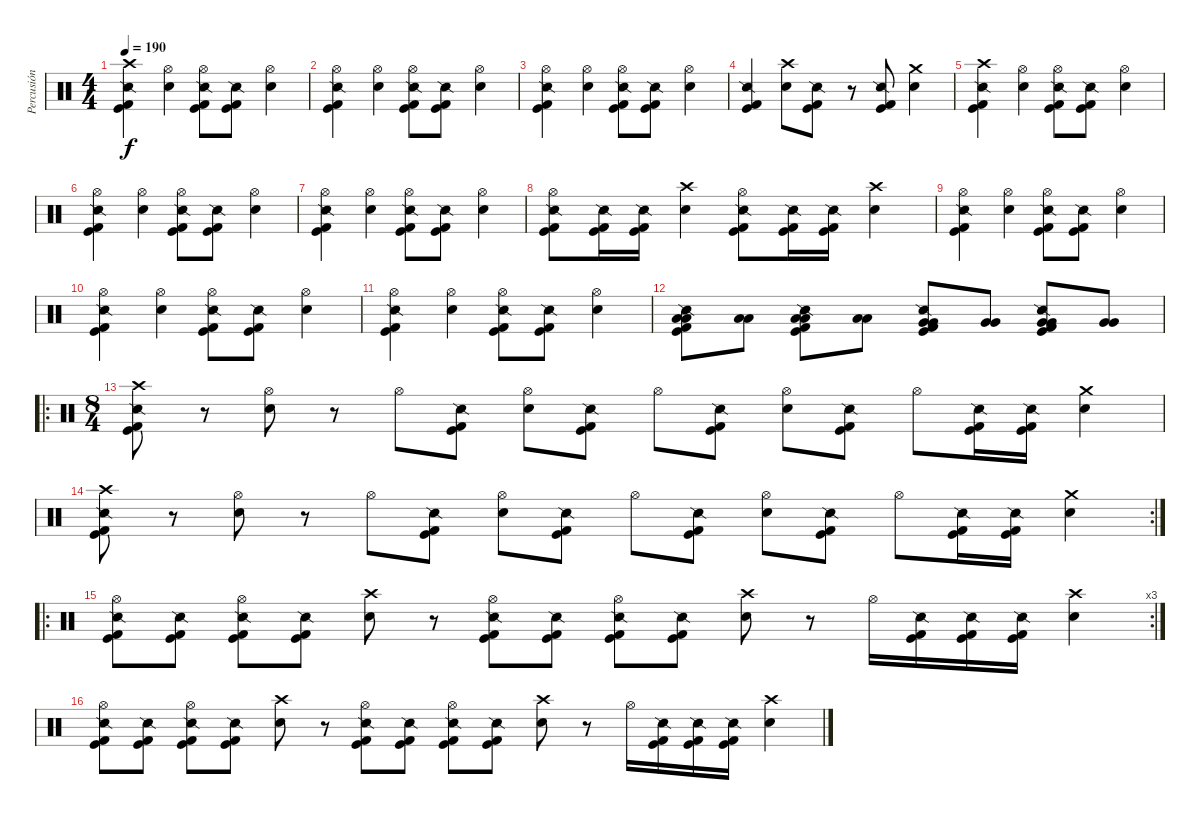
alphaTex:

\track ("Percusión" "Percusión") {instrument percussion}
\staff {score}
\articulation defaults
\ts (4 4)
\tempo 190
\clef neutral
\ks c
("Crash high (hit)" "Snare (side stick) 2" "Kick (hit)" "Kick (hit) 2").4{dy f} ("Hi-Hat (open)" "Snare (hit) 2").4 ("Hi-Hat (open)" "Snare (side stick) 2" "Kick (hit)" "Kick (hit) 2").8 ("Snare (side stick) 2" "Kick (hit)" "Kick (hit) 2").8 ("Hi-Hat (open)" "Snare (hit) 2").4 |
("Hi-Hat (open)" "Snare (side stick) 2" "Kick (hit)" "Kick (hit) 2").4 ("Hi-Hat (open)" "Snare (hit) 2").4 ("Hi-Hat (open)" "Snare (side stick) 2" "Kick (hit)" "Kick (hit) 2").8 ("Snare (side stick) 2" "Kick (hit)" "Kick (hit) 2").8 ("Hi-Hat (open)" "Snare (hit) 2").4 |
("Hi-Hat (open)" "Snare (side stick) 2" "Kick (hit)" "Kick (hit) 2").4 ("Hi-Hat (open)" "Snare (hit) 2").4 ("Hi-Hat (open)" "Snare (side stick) 2" "Kick (hit)" "Kick (hit) 2").8 ("Snare (side stick) 2" "Kick (hit)" "Kick (hit) 2").8 ("Hi-Hat (open)" "Snare (hit) 2").4 |
("Snare (side stick) 2" "Kick (hit)" "Kick (hit) 2").4 ("Crash high (hit)" "Snare (hit) 2").8 ("Snare (side stick) 2" "Kick (hit)" "Kick (hit) 2").8 r.8 ("Snare (side stick) 2" "Kick (hit)" "Kick (hit) 2").8 ("Crash medium (hit)" "Snare (hit) 2").4 |
("Crash high (hit)" "Snare (side stick) 2" "Kick (hit)" "Kick (hit) 2").4 ("Hi-Hat (open)" "Snare (hit) 2").4 ("Hi-Hat (open)" "Snare (side stick) 2" "Kick (hit)" "Kick (hit) 2").8 ("Snare (side stick) 2" "Kick (hit)" "Kick (hit) 2").8 ("Hi-Hat (open)" "Snare (hit) 2").4 |
("Hi-Hat (open)" "Snare (side stick) 2" "Kick (hit)" "Kick (hit) 2").4 ("Hi-Hat (open)" "Snare (hit) 2").4 ("Hi-Hat (open)" "Snare (side stick) 2" "Kick (hit)" "Kick (hit) 2").8 ("Snare (side stick) 2" "Kick (hit)" "Kick (hit) 2").8 ("Hi-Hat (open)" "Snare (hit) 2").4 |
("Hi-Hat (open)" "Snare (side stick) 2" "Kick (hit)" "Kick (hit) 2").4 ("Hi-Hat (open)" "Snare (hit) 2").4 ("Hi-Hat (open)" "Snare (side stick) 2" "Kick (hit)" "Kick (hit) 2").8 ("Snare (side stick) 2" "Kick (hit)" "Kick (hit) 2").8 ("Hi-Hat (open)" "Snare (hit) 2").4 |
("Hi-Hat (open)" "Snare (side stick) 2" "Kick (hit)" "Kick (hit) 2").8 ("Snare (side stick) 2" "Kick (hit)" "Kick (hit) 2").16 ("Snare (side stick) 2" "Kick (hit)" "Kick (hit) 2").16 ("Crash high (hit)" "Snare (hit) 2").4 ("Hi-Hat (open)" "Snare (side stick) 2" "Kick (hit)" "Kick (hit) 2").8 ("Snare (side stick) 2" "Kick (hit)" "Kick (hit) 2").16 ("Snare (side stick) 2" "Kick (hit)" "Kick (hit) 2").16 ("Crash high (hit)" "Snare (hit) 2").4 |
("Hi-Hat (open)" "Snare (side stick) 2" "Kick (hit)" "Kick (hit) 2").4 ("Hi-Hat (open)" "Snare (hit) 2").4 ("Hi-Hat (open)" "Snare (side stick) 2" "Kick (hit)" "Kick (hit) 2").8 ("Snare (side stick) 2" "Kick (hit)" "Kick (hit) 2").8 ("Hi-Hat (open)" "Snare (hit) 2").4 |
("Hi-Hat (open)" "Snare (side stick) 2" "Kick (hit)" "Kick (hit) 2").4 ("Hi-Hat (open)" "Snare (hit) 2").4 ("Hi-Hat (open)" "Snare (side stick) 2" "Kick (hit)" "Kick (hit) 2").8 ("Snare (side stick) 2" "Kick (hit)" "Kick (hit) 2").8 ("Hi-Hat (open)" "Snare (hit) 2").4 |
("Hi-Hat (open)" "Snare (side stick) 2" "Kick (hit)" "Kick (hit) 2").4 ("Hi-Hat (open)" "Snare (hit) 2").4 ("Hi-Hat (open)" "Snare (side stick) 2" "Kick (hit)" "Kick (hit) 2").8 ("Snare (side stick) 2" "Kick (hit)" "Kick (hit) 2").8 ("Hi-Hat (open)" "Snare (hit) 2").4 |
("Low Tom (hit)" "Low Tom (hit)" "Snare (side stick) 2" "Kick (hit)" "Kick (hit) 2").8 ("Low Tom (hit)" "Low Tom (hit)").8 ("Low Tom (hit)" "Low Tom (hit)" "Snare (side stick) 2" "Kick (hit)" "Kick (hit) 2").8 ("Low Tom (hit)" "Low Tom (hit)").8 ("Very Low Tom (hit)" "Very Low Tom (hit)" "Snare (side stick) 2" "Kick (hit)" "Kick (hit) 2").8 ("Very Low Tom (hit)" "Very Low Tom (hit)").8 ("Very Low Tom (hit)" "Very Low Tom (hit)" "Snare (side stick) 2" "Kick (hit)" "Kick (hit) 2").8 ("Very Low Tom (hit)" "Very Low Tom (hit)").8 |
\ro
\ts (8 4)
("Crash high (hit)" "Snare (side stick) 2" "Kick (hit)" "Kick (hit) 2").8 r.8 ("Hi-Hat (open)" "Snare (hit) 2").8 r.8 "Hi-Hat (open)".8 ("Snare (side stick) 2" "Kick (hit)" "Kick (hit) 2").8 ("Hi-Hat (open)" "Snare (hit) 2").8 ("Snare (side stick) 2" "Kick (hit)" "Kick (hit) 2").8 "Hi-Hat (open)".8 ("Snare (side stick) 2" "Kick (hit)" "Kick (hit) 2").8 ("Hi-Hat (open)" "Snare (hit) 2").8 ("Snare (side stick) 2" "Kick (hit)" "Kick (hit) 2").8 "Hi-Hat (open)".8 ("Snare (side stick) 2" "Kick (hit)" "Kick (hit) 2").16 ("Snare (side stick) 2" "Kick (hit)" "Kick (hit) 2").16 ("Crash medium (hit)" "Snare (hit) 2").4 |
\rc 2
("Crash high (hit)" "Snare (side stick) 2" "Kick (hit)" "Kick (hit) 2").8 r.8 ("Hi-Hat (open)" "Snare (hit) 2").8 r.8 "Hi-Hat (open)".8 ("Snare (side stick) 2" "Kick (hit)" "Kick (hit) 2").8 ("Hi-Hat (open)" "Snare (hit) 2").8 ("Snare (side stick) 2" "Kick (hit)" "Kick (hit) 2").8 "Hi-Hat (open)".8 ("Snare (side stick) 2" "Kick (hit)" "Kick (hit) 2").8 ("Hi-Hat (open)" "Snare (hit) 2").8 ("Snare (side stick) 2" "Kick (hit)" "Kick (hit) 2").8 "Hi-Hat (open)".8 ("Snare (side stick) 2" "Kick (hit)" "Kick (hit) 2").16 ("Snare (side stick) 2" "Kick (hit)" "Kick (hit) 2").16 ("Crash medium (hit)" "Snare (hit) 2").4 |
\ro
\rc 3
("Hi-Hat (open)" "Snare (side stick) 2" "Kick (hit)" "Kick (hit) 2").8 ("Snare (side stick) 2" "Kick (hit)" "Kick (hit) 2").8 ("Hi-Hat (open)" "Snare (side stick) 2" "Kick (hit)" "Kick (hit) 2").8 ("Snare (side stick) 2" "Kick (hit)" "Kick (hit) 2").8 ("Crash high (hit)" "Snare (hit) 2").8 r.8 ("Hi-Hat (open)" "Snare (side stick) 2" "Kick (hit)" "Kick (hit) 2").8 ("Snare (side stick) 2" "Kick (hit)" "Kick (hit) 2").8 ("Hi-Hat (open)" "Snare (side stick) 2" "Kick (hit)" "Kick (hit) 2").8 ("Snare (side stick) 2" "Kick (hit)" "Kick (hit) 2").8 ("Crash high (hit)" "Snare (hit) 2").8 r.8 "Hi-Hat (open)".16 ("Snare (side stick) 2" "Kick (hit)" "Kick (hit) 2").16 ("Snare (side stick) 2" "Kick (hit)" "Kick (hit) 2").16 ("Snare (side stick) 2" "Kick (hit)" "Kick (hit) 2").16 ("Crash high (hit)" "Snare (hit) 2").4 |
("Hi-Hat (open)" "Snare (side stick) 2" "Kick (hit)" "Kick (hit) 2").8 ("Snare (side stick) 2" "Kick (hit)" "Kick (hit) 2").8 ("Hi-Hat (open)" "Snare (side stick) 2" "Kick (hit)" "Kick (hit) 2").8 ("Snare (side stick) 2" "Kick (hit)" "Kick (hit) 2").8 ("Crash high (hit)" "Snare (hit) 2").8 r.8 ("Hi-Hat (open)" "Snare (side stick) 2" "Kick (hit)" "Kick (hit) 2").8 ("Snare (side stick) 2" "Kick (hit)" "Kick (hit) 2").8 ("Hi-Hat (open)" "Snare (side stick) 2" "Kick (hit)" "Kick (hit) 2").8 ("Snare (side stick) 2" "Kick (hit)" "Kick (hit) 2").8 ("Crash high (hit)" "Snare (hit) 2").8 r.8 "Hi-Hat (open)".16 ("Snare (side stick) 2" "Kick (hit)" "Kick (hit) 2").16 ("Snare (side stick) 2" "Kick (hit)" "Kick (hit) 2").16 ("Snare (side stick) 2" "Kick (hit)" "Kick (hit) 2").16 ("Crash high (hit)" "Snare (hit) 2").4
